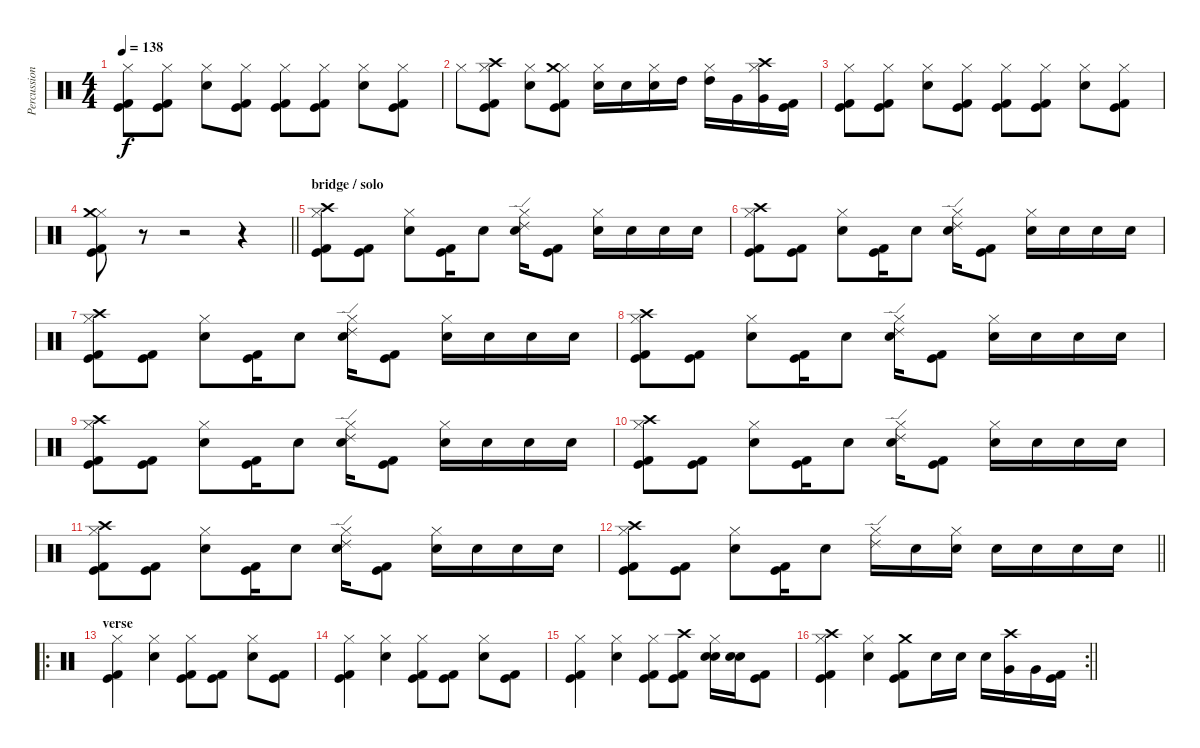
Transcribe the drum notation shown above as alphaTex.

\track ("Percussion" "Percussion") {instrument percussion}
\staff {score}
\articulation defaults
\ts (4 4)
\tempo 138
\clef neutral
\ks c
("Hi-Hat (closed)" "Kick (hit) 2" "Kick (hit)").8{dy f} ("Hi-Hat (closed)" "Kick (hit) 2" "Kick (hit)").8 ("Hi-Hat (closed)" "Snare (hit) 2").8 ("Hi-Hat (closed)" "Kick (hit) 2" "Kick (hit)").8 ("Hi-Hat (closed)" "Kick (hit) 2" "Kick (hit)").8 ("Hi-Hat (closed)" "Kick (hit) 2" "Kick (hit)").8 ("Hi-Hat (closed)" "Snare (hit) 2").8 ("Hi-Hat (closed)" "Kick (hit) 2" "Kick (hit)").8 |
"Hi-Hat (closed)".8 ("Hi-Hat (closed)" "Crash high (hit)" "Kick (hit) 2" "Kick (hit)").8 ("Hi-Hat (closed)" "Snare (hit) 2").8 ("Hi-Hat (closed)" "Crash medium (hit)" "Kick (hit) 2" "Kick (hit)").8 ("Hi-Hat (closed)" "Snare (hit) 2").16 "Snare (hit) 2".16 ("Hi-Hat (closed)" "Snare (hit) 2").16 "High Tom (hit)".16 ("Hi-Hat (closed)" "High Tom (hit)").16 "Very Low Tom (hit)".16 ("Hi-Hat (closed)" "Crash high (hit)" "Very Low Tom (hit)").16 ("Kick (hit)" "Kick (hit) 2").16 |
("Hi-Hat (closed)" "Kick (hit) 2" "Kick (hit)").8 ("Hi-Hat (closed)" "Kick (hit) 2" "Kick (hit)").8 ("Hi-Hat (closed)" "Snare (hit) 2").8 ("Hi-Hat (closed)" "Kick (hit) 2" "Kick (hit)").8 ("Hi-Hat (closed)" "Kick (hit) 2" "Kick (hit)").8 ("Hi-Hat (closed)" "Kick (hit) 2" "Kick (hit)").8 ("Hi-Hat (closed)" "Snare (hit) 2").8 ("Hi-Hat (closed)" "Kick (hit) 2" "Kick (hit)").8 |
\barLineRight lightlight
("Hi-Hat (closed)" "Crash medium (hit)" "Kick (hit) 2" "Kick (hit)").8 r.8 r.2 r.4 |
\section ("" "bridge / solo")
("Hi-Hat (closed)" "Crash high (hit)" "Kick (hit) 2" "Kick (hit)").8 ("Kick (hit) 2" "Kick (hit)").8 ("Hi-Hat (closed)" "Snare (hit) 2").8 ("Kick (hit) 2" "Kick (hit)").16 "Snare (hit) 2".8 ("Hi-Hat (closed)" "Ride (edge) 2" "Snare (hit) 2").16 ("Kick (hit) 2" "Kick (hit)").8 ("Hi-Hat (closed)" "Snare (hit) 2").16 "Snare (hit) 2".16 "Snare (hit) 2".16 "Snare (hit) 2".16 |
("Hi-Hat (closed)" "Crash high (hit)" "Kick (hit) 2" "Kick (hit)").8 ("Kick (hit) 2" "Kick (hit)").8 ("Hi-Hat (closed)" "Snare (hit) 2").8 ("Kick (hit) 2" "Kick (hit)").16 "Snare (hit) 2".8 ("Hi-Hat (closed)" "Ride (edge) 2" "Snare (hit) 2").16 ("Kick (hit) 2" "Kick (hit)").8 ("Hi-Hat (closed)" "Snare (hit) 2").16 "Snare (hit) 2".16 "Snare (hit) 2".16 "Snare (hit) 2".16 |
("Hi-Hat (closed)" "Crash high (hit)" "Kick (hit) 2" "Kick (hit)").8 ("Kick (hit) 2" "Kick (hit)").8 ("Hi-Hat (closed)" "Snare (hit) 2").8 ("Kick (hit) 2" "Kick (hit)").16 "Snare (hit) 2".8 ("Hi-Hat (closed)" "Ride (edge) 2" "Snare (hit) 2").16 ("Kick (hit) 2" "Kick (hit)").8 ("Hi-Hat (closed)" "Snare (hit) 2").16 "Snare (hit) 2".16 "Snare (hit) 2".16 "Snare (hit) 2".16 |
("Hi-Hat (closed)" "Crash high (hit)" "Kick (hit) 2" "Kick (hit)").8 ("Kick (hit) 2" "Kick (hit)").8 ("Hi-Hat (closed)" "Snare (hit) 2").8 ("Kick (hit) 2" "Kick (hit)").16 "Snare (hit) 2".8 ("Hi-Hat (closed)" "Ride (edge) 2" "Snare (hit) 2").16 ("Kick (hit) 2" "Kick (hit)").8 ("Hi-Hat (closed)" "Snare (hit) 2").16 "Snare (hit) 2".16 "Snare (hit) 2".16 "Snare (hit) 2".16 |
("Hi-Hat (closed)" "Crash high (hit)" "Kick (hit) 2" "Kick (hit)").8 ("Kick (hit) 2" "Kick (hit)").8 ("Hi-Hat (closed)" "Snare (hit) 2").8 ("Kick (hit) 2" "Kick (hit)").16 "Snare (hit) 2".8 ("Hi-Hat (closed)" "Ride (edge) 2" "Snare (hit) 2").16 ("Kick (hit) 2" "Kick (hit)").8 ("Hi-Hat (closed)" "Snare (hit) 2").16 "Snare (hit) 2".16 "Snare (hit) 2".16 "Snare (hit) 2".16 |
("Hi-Hat (closed)" "Crash high (hit)" "Kick (hit) 2" "Kick (hit)").8 ("Kick (hit) 2" "Kick (hit)").8 ("Hi-Hat (closed)" "Snare (hit) 2").8 ("Kick (hit) 2" "Kick (hit)").16 "Snare (hit) 2".8 ("Hi-Hat (closed)" "Ride (edge) 2" "Snare (hit) 2").16 ("Kick (hit) 2" "Kick (hit)").8 ("Hi-Hat (closed)" "Snare (hit) 2").16 "Snare (hit) 2".16 "Snare (hit) 2".16 "Snare (hit) 2".16 |
("Hi-Hat (closed)" "Crash high (hit)" "Kick (hit) 2" "Kick (hit)").8 ("Kick (hit) 2" "Kick (hit)").8 ("Hi-Hat (closed)" "Snare (hit) 2").8 ("Kick (hit) 2" "Kick (hit)").16 "Snare (hit) 2".8 ("Hi-Hat (closed)" "Ride (edge) 2" "Snare (hit) 2").16 ("Kick (hit) 2" "Kick (hit)").8 ("Hi-Hat (closed)" "Snare (hit) 2").16 "Snare (hit) 2".16 "Snare (hit) 2".16 "Snare (hit) 2".16 |
\barLineRight lightlight
("Hi-Hat (closed)" "Crash high (hit)" "Kick (hit) 2" "Kick (hit)").8 ("Kick (hit) 2" "Kick (hit)").8 ("Hi-Hat (closed)" "Snare (hit) 2").8 ("Kick (hit) 2" "Kick (hit)").16 "Snare (hit) 2".8 ("Hi-Hat (closed)" "Ride (edge) 2").16 "Snare (hit) 2".16 ("Hi-Hat (closed)" "Snare (hit) 2").16 "Snare (hit) 2".16 "Snare (hit) 2".16 "Snare (hit) 2".16 "Snare (hit) 2".16 |
\ro
\section ("" "verse")
("Hi-Hat (closed)" "Kick (hit) 2" "Kick (hit)").4 ("Hi-Hat (closed)" "Snare (hit) 2").4 ("Hi-Hat (closed)" "Kick (hit) 2" "Kick (hit)").8 ("Kick (hit) 2" "Kick (hit)").8 ("Hi-Hat (closed)" "Snare (hit) 2").8 ("Kick (hit) 2" "Kick (hit)").8 |
("Hi-Hat (closed)" "Kick (hit) 2" "Kick (hit)").4 ("Hi-Hat (closed)" "Snare (hit) 2").4 ("Hi-Hat (closed)" "Kick (hit) 2" "Kick (hit)").8 ("Kick (hit) 2" "Kick (hit)").8 ("Hi-Hat (closed)" "Snare (hit) 2").8 ("Kick (hit) 2" "Kick (hit)").8 |
("Hi-Hat (closed)" "Kick (hit) 2" "Kick (hit)").4 ("Hi-Hat (closed)" "Snare (hit) 2").4 ("Hi-Hat (closed)" "Kick (hit) 2" "Kick (hit)").8 ("Crash high (hit)" "Kick (hit) 2" "Kick (hit)").8 ("Hi-Hat (closed)" "Electric Snare (hit)" "Snare (hit) 2").16 ("Electric Snare (hit)" "Snare (hit) 2").16 ("Kick (hit) 2" "Kick (hit)").8 |
\rc 2
\barLineRight lightlight
("Hi-Hat (closed)" "Crash high (hit)" "Kick (hit) 2" "Kick (hit)").4 ("Hi-Hat (closed)" "Snare (hit) 2").4 ("Crash medium (hit)" "Kick (hit) 2" "Kick (hit)").8 "Snare (hit) 2".16 "Snare (hit) 2".16 "Snare (hit) 2".16 ("Crash high (hit)" "Very Low Tom (hit)").16 "Very Low Tom (hit)".16 ("Kick (hit) 2" "Kick (hit)").16
